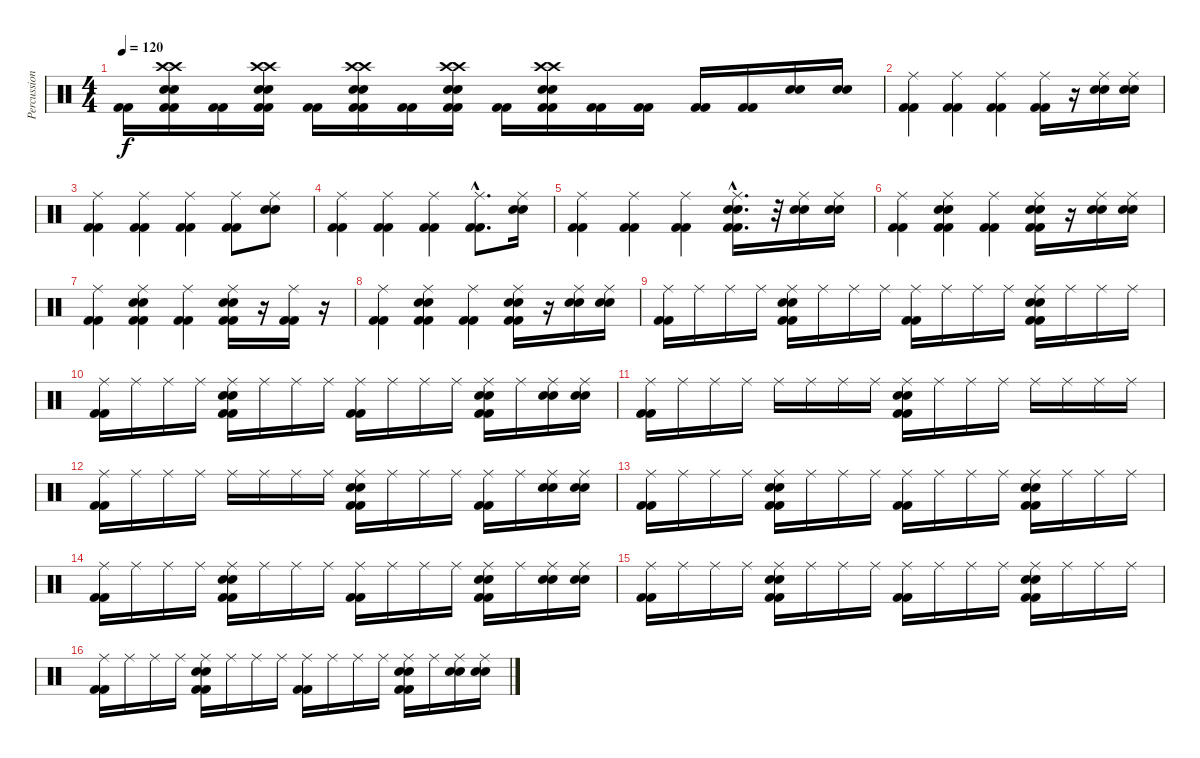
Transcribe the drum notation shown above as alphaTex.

\track ("Percussions" "Percussion") {instrument percussion}
\staff {score}
\articulation defaults
\ts (4 4)
\tempo 120
\clef neutral
\ks c
("Kick (hit) 2" "Kick (hit) 2").16{dy f} ("Kick (hit) 2" "Kick (hit) 2" "Electric Snare (hit)" "Electric Snare (hit)" "Crash high (hit)" "Crash high (hit)").16 ("Kick (hit) 2" "Kick (hit) 2").16 ("Kick (hit) 2" "Kick (hit) 2" "Electric Snare (hit)" "Electric Snare (hit)" "Crash high (hit)" "Crash high (hit)").16 ("Kick (hit) 2" "Kick (hit) 2").16 ("Kick (hit) 2" "Kick (hit) 2" "Electric Snare (hit)" "Electric Snare (hit)" "Crash high (hit)" "Crash high (hit)").16 ("Kick (hit) 2" "Kick (hit) 2").16 ("Kick (hit) 2" "Kick (hit) 2" "Electric Snare (hit)" "Electric Snare (hit)" "Crash high (hit)" "Crash high (hit)").16 ("Kick (hit) 2" "Kick (hit) 2").16 ("Kick (hit) 2" "Kick (hit) 2" "Electric Snare (hit)" "Electric Snare (hit)" "Crash high (hit)" "Crash high (hit)").16 ("Kick (hit) 2" "Kick (hit) 2").16 ("Kick (hit) 2" "Kick (hit) 2").16 ("Kick (hit) 2" "Kick (hit) 2").16 ("Kick (hit) 2" "Kick (hit) 2").16 ("Electric Snare (hit)" "Electric Snare (hit)").16 ("Electric Snare (hit)" "Electric Snare (hit)").16 |
("Kick (hit) 2" "Kick (hit) 2" "Ride (middle)").4 ("Kick (hit) 2" "Kick (hit) 2" "Ride (middle)").4 ("Kick (hit) 2" "Kick (hit) 2" "Ride (middle)").4 ("Kick (hit) 2" "Kick (hit) 2" "Ride (middle)").16 r.16 ("Electric Snare (hit)" "Electric Snare (hit)" "Ride (middle)").16 ("Electric Snare (hit)" "Electric Snare (hit)" "Ride (middle)").16 |
("Kick (hit) 2" "Kick (hit) 2" "Ride (middle)").4 ("Kick (hit) 2" "Kick (hit) 2" "Ride (middle)").4 ("Kick (hit) 2" "Kick (hit) 2" "Ride (middle)").4 ("Kick (hit) 2" "Kick (hit) 2" "Ride (middle)").8 ("Electric Snare (hit)" "Electric Snare (hit)" "Ride (middle)").8 |
("Kick (hit) 2" "Kick (hit) 2" "Ride (middle)").4 ("Kick (hit) 2" "Kick (hit) 2" "Ride (middle)").4 ("Kick (hit) 2" "Kick (hit) 2" "Ride (middle)").4 ("Kick (hit) 2"{hac} "Kick (hit) 2"{hac} "Ride (middle)"{hac}).8{d} ("Electric Snare (hit)" "Electric Snare (hit)" "Ride (middle)").16 |
("Kick (hit) 2" "Kick (hit) 2" "Ride (middle)").4 ("Kick (hit) 2" "Kick (hit) 2" "Ride (middle)").4 ("Kick (hit) 2" "Kick (hit) 2" "Ride (middle)").4 ("Kick (hit) 2"{hac} "Kick (hit) 2"{hac} "Electric Snare (hit)"{hac} "Electric Snare (hit)"{hac} "Ride (middle)"{hac}).16{d} r.32 ("Electric Snare (hit)" "Electric Snare (hit)" "Ride (middle)").16 ("Electric Snare (hit)" "Electric Snare (hit)" "Ride (middle)").16 |
("Kick (hit) 2" "Kick (hit) 2" "Ride (middle)").4 ("Kick (hit) 2" "Kick (hit) 2" "Electric Snare (hit)" "Electric Snare (hit)" "Ride (middle)").4 ("Kick (hit) 2" "Kick (hit) 2" "Ride (middle)").4 ("Kick (hit) 2" "Kick (hit) 2" "Electric Snare (hit)" "Electric Snare (hit)" "Ride (middle)").16 r.16 ("Electric Snare (hit)" "Electric Snare (hit)" "Ride (middle)").16 ("Electric Snare (hit)" "Electric Snare (hit)" "Ride (middle)").16 |
("Kick (hit) 2" "Kick (hit) 2" "Ride (middle)").4 ("Kick (hit) 2" "Kick (hit) 2" "Electric Snare (hit)" "Electric Snare (hit)" "Ride (middle)").4 ("Kick (hit) 2" "Kick (hit) 2" "Ride (middle)").4 ("Kick (hit) 2" "Kick (hit) 2" "Electric Snare (hit)" "Electric Snare (hit)" "Ride (middle)").16 r.16 ("Kick (hit) 2" "Kick (hit) 2" "Ride (middle)").16 r.16 |
("Kick (hit) 2" "Kick (hit) 2" "Ride (middle)").4 ("Kick (hit) 2" "Kick (hit) 2" "Electric Snare (hit)" "Electric Snare (hit)" "Ride (middle)").4 ("Kick (hit) 2" "Kick (hit) 2" "Ride (middle)").4 ("Kick (hit) 2" "Kick (hit) 2" "Electric Snare (hit)" "Electric Snare (hit)" "Ride (middle)").16 r.16 ("Electric Snare (hit)" "Electric Snare (hit)" "Ride (middle)").16 ("Electric Snare (hit)" "Electric Snare (hit)" "Ride (middle)").16 |
("Kick (hit) 2" "Kick (hit) 2" "Ride (middle)").16 "Ride (middle)".16 "Ride (middle)".16 "Ride (middle)".16 ("Kick (hit) 2" "Kick (hit) 2" "Electric Snare (hit)" "Electric Snare (hit)" "Ride (middle)").16 "Ride (middle)".16 "Ride (middle)".16 "Ride (middle)".16 ("Kick (hit) 2" "Kick (hit) 2" "Ride (middle)").16 "Ride (middle)".16 "Ride (middle)".16 "Ride (middle)".16 ("Kick (hit) 2" "Kick (hit) 2" "Electric Snare (hit)" "Electric Snare (hit)" "Ride (middle)").16 "Ride (middle)".16 "Ride (middle)".16 "Ride (middle)".16 |
("Kick (hit) 2" "Kick (hit) 2" "Ride (middle)").16 "Ride (middle)".16 "Ride (middle)".16 "Ride (middle)".16 ("Kick (hit) 2" "Kick (hit) 2" "Electric Snare (hit)" "Electric Snare (hit)" "Ride (middle)").16 "Ride (middle)".16 "Ride (middle)".16 "Ride (middle)".16 ("Kick (hit) 2" "Kick (hit) 2" "Ride (middle)").16 "Ride (middle)".16 "Ride (middle)".16 "Ride (middle)".16 ("Kick (hit) 2" "Kick (hit) 2" "Electric Snare (hit)" "Electric Snare (hit)" "Ride (middle)").16 "Ride (middle)".16 ("Electric Snare (hit)" "Electric Snare (hit)" "Ride (middle)").16 ("Electric Snare (hit)" "Electric Snare (hit)" "Ride (middle)").16 |
("Kick (hit) 2" "Kick (hit) 2" "Ride (middle)").16 "Ride (middle)".16 "Ride (middle)".16 "Ride (middle)".16 "Ride (middle)".16 "Ride (middle)".16 "Ride (middle)".16 "Ride (middle)".16 ("Kick (hit) 2" "Kick (hit) 2" "Electric Snare (hit)" "Electric Snare (hit)" "Ride (middle)").16 "Ride (middle)".16 "Ride (middle)".16 "Ride (middle)".16 "Ride (middle)".16 "Ride (middle)".16 "Ride (middle)".16 "Ride (middle)".16 |
("Kick (hit) 2" "Kick (hit) 2" "Ride (middle)").16 "Ride (middle)".16 "Ride (middle)".16 "Ride (middle)".16 "Ride (middle)".16 "Ride (middle)".16 "Ride (middle)".16 "Ride (middle)".16 ("Kick (hit) 2" "Kick (hit) 2" "Electric Snare (hit)" "Electric Snare (hit)" "Ride (middle)").16 "Ride (middle)".16 "Ride (middle)".16 "Ride (middle)".16 ("Kick (hit) 2" "Kick (hit) 2" "Ride (middle)").16 "Ride (middle)".16 ("Electric Snare (hit)" "Electric Snare (hit)" "Ride (middle)").16 ("Electric Snare (hit)" "Electric Snare (hit)" "Ride (middle)").16 |
("Kick (hit) 2" "Kick (hit) 2" "Ride (middle)").16 "Ride (middle)".16 "Ride (middle)".16 "Ride (middle)".16 ("Kick (hit) 2" "Kick (hit) 2" "Electric Snare (hit)" "Electric Snare (hit)" "Ride (middle)").16 "Ride (middle)".16 "Ride (middle)".16 "Ride (middle)".16 ("Kick (hit) 2" "Kick (hit) 2" "Ride (middle)").16 "Ride (middle)".16 "Ride (middle)".16 "Ride (middle)".16 ("Kick (hit) 2" "Kick (hit) 2" "Electric Snare (hit)" "Electric Snare (hit)" "Ride (middle)").16 "Ride (middle)".16 "Ride (middle)".16 "Ride (middle)".16 |
("Kick (hit) 2" "Kick (hit) 2" "Ride (middle)").16 "Ride (middle)".16 "Ride (middle)".16 "Ride (middle)".16 ("Kick (hit) 2" "Kick (hit) 2" "Electric Snare (hit)" "Electric Snare (hit)" "Ride (middle)").16 "Ride (middle)".16 "Ride (middle)".16 "Ride (middle)".16 ("Kick (hit) 2" "Kick (hit) 2" "Ride (middle)").16 "Ride (middle)".16 "Ride (middle)".16 "Ride (middle)".16 ("Kick (hit) 2" "Kick (hit) 2" "Electric Snare (hit)" "Electric Snare (hit)" "Ride (middle)").16 "Ride (middle)".16 ("Electric Snare (hit)" "Electric Snare (hit)" "Ride (middle)").16 ("Electric Snare (hit)" "Electric Snare (hit)" "Ride (middle)").16 |
("Kick (hit) 2" "Kick (hit) 2" "Ride (middle)").16 "Ride (middle)".16 "Ride (middle)".16 "Ride (middle)".16 ("Kick (hit) 2" "Kick (hit) 2" "Electric Snare (hit)" "Electric Snare (hit)" "Ride (middle)").16 "Ride (middle)".16 "Ride (middle)".16 "Ride (middle)".16 ("Kick (hit) 2" "Kick (hit) 2" "Ride (middle)").16 "Ride (middle)".16 "Ride (middle)".16 "Ride (middle)".16 ("Kick (hit) 2" "Kick (hit) 2" "Electric Snare (hit)" "Electric Snare (hit)" "Ride (middle)").16 "Ride (middle)".16 "Ride (middle)".16 "Ride (middle)".16 |
("Kick (hit) 2" "Kick (hit) 2" "Ride (middle)").16 "Ride (middle)".16 "Ride (middle)".16 "Ride (middle)".16 ("Kick (hit) 2" "Kick (hit) 2" "Electric Snare (hit)" "Electric Snare (hit)" "Ride (middle)").16 "Ride (middle)".16 "Ride (middle)".16 "Ride (middle)".16 ("Kick (hit) 2" "Kick (hit) 2" "Ride (middle)").16 "Ride (middle)".16 "Ride (middle)".16 "Ride (middle)".16 ("Kick (hit) 2" "Kick (hit) 2" "Electric Snare (hit)" "Electric Snare (hit)" "Ride (middle)").16 "Ride (middle)".16 ("Electric Snare (hit)" "Electric Snare (hit)" "Ride (middle)").16 ("Electric Snare (hit)" "Electric Snare (hit)" "Ride (middle)").16
